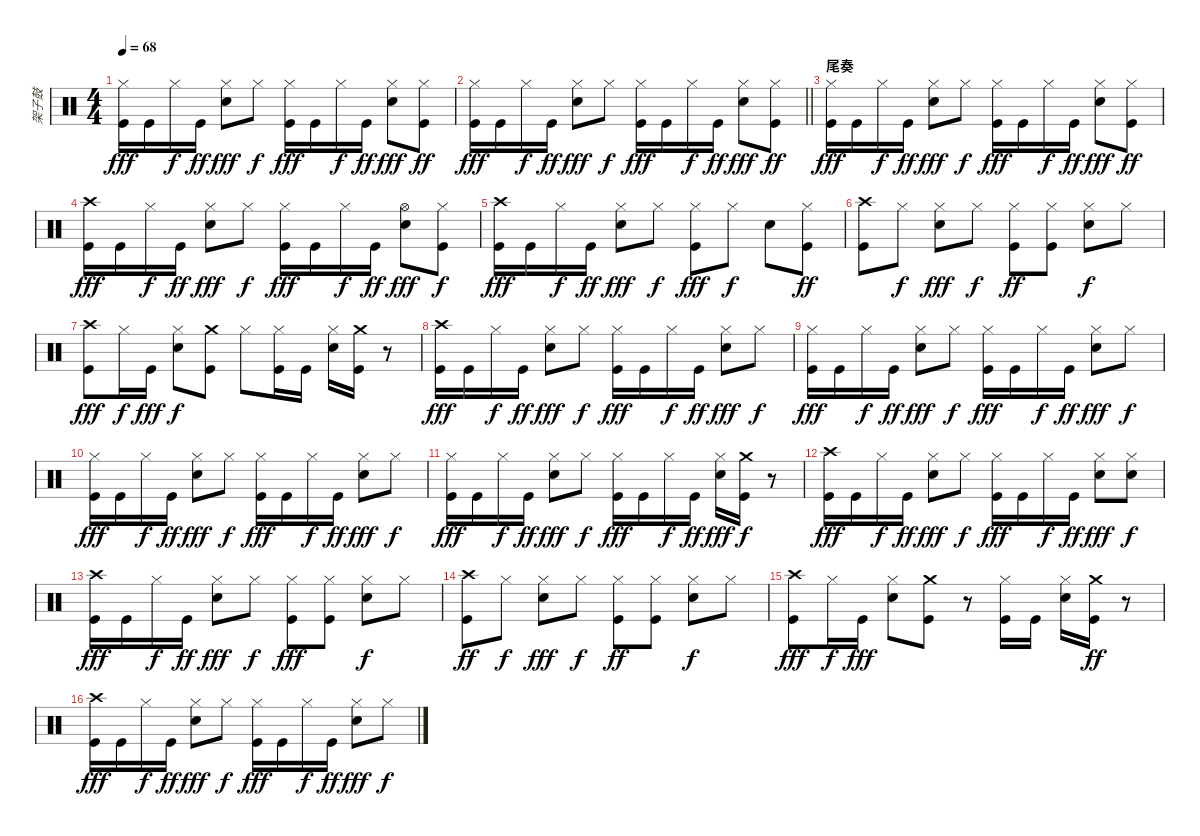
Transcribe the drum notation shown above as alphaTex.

\track ("架子鼓" "架子鼓") {instrument percussion}
\staff {score}
\articulation defaults
\ts (4 4)
\tempo 68
\clef neutral
\ks c
("Hi-Hat (closed)" "Kick (hit)").16{dy fff} "Kick (hit)".16 "Hi-Hat (closed)".16{dy f} "Kick (hit)".16{dy ff} ("Hi-Hat (closed)" "Snare (hit) 2").8{dy fff} "Hi-Hat (closed)".8{dy f} ("Hi-Hat (closed)" "Kick (hit)").16{dy fff} "Kick (hit)".16 "Hi-Hat (closed)".16{dy f} "Kick (hit)".16{dy ff} ("Hi-Hat (closed)" "Snare (hit) 2").8{dy fff} ("Hi-Hat (closed)" "Kick (hit)").8{dy ff} |
\barLineRight lightlight
("Hi-Hat (closed)" "Kick (hit)").16{dy fff} "Kick (hit)".16 "Hi-Hat (closed)".16{dy f} "Kick (hit)".16{dy ff} ("Hi-Hat (closed)" "Snare (hit) 2").8{dy fff} "Hi-Hat (closed)".8{dy f} ("Hi-Hat (closed)" "Kick (hit)").16{dy fff} "Kick (hit)".16 "Hi-Hat (closed)".16{dy f} "Kick (hit)".16{dy ff} ("Hi-Hat (closed)" "Snare (hit) 2").8{dy fff} ("Hi-Hat (closed)" "Kick (hit)").8{dy ff} |
\section ("" "尾奏")
("Hi-Hat (closed)" "Kick (hit)").16{dy fff} "Kick (hit)".16 "Hi-Hat (closed)".16{dy f} "Kick (hit)".16{dy ff} ("Hi-Hat (closed)" "Snare (hit) 2").8{dy fff} "Hi-Hat (closed)".8{dy f} ("Hi-Hat (closed)" "Kick (hit)").16{dy fff} "Kick (hit)".16 "Hi-Hat (closed)".16{dy f} "Kick (hit)".16{dy ff} ("Hi-Hat (closed)" "Snare (hit) 2").8{dy fff} ("Hi-Hat (closed)" "Kick (hit)").8{dy ff} |
("Crash high (hit)" "Kick (hit)").16{dy fff} "Kick (hit)".16 "Hi-Hat (closed)".16{dy f} "Kick (hit)".16{dy ff} ("Hi-Hat (closed)" "Snare (hit) 2").8{dy fff} "Hi-Hat (closed)".8{dy f} ("Hi-Hat (closed)" "Kick (hit)").16{dy fff} "Kick (hit)".16 "Hi-Hat (closed)".16{dy f} "Kick (hit)".16{dy ff} ("Hi-Hat (open)" "Snare (hit) 2").8{dy fff} ("Hi-Hat (closed)" "Kick (hit)").8{dy f} |
("Crash high (hit)" "Kick (hit)").16{dy fff} "Kick (hit)".16 "Hi-Hat (closed)".16{dy f} "Kick (hit)".16{dy ff} ("Hi-Hat (closed)" "Snare (hit) 2").8{dy fff} "Hi-Hat (closed)".8{dy f} ("Hi-Hat (closed)" "Kick (hit)").8{dy fff} "Hi-Hat (closed)".8{dy f} "Snare (hit) 2".8 ("Hi-Hat (closed)" "Kick (hit)").8{dy ff} |
("Crash high (hit)" "Kick (hit)").8 "Hi-Hat (closed)".8{dy f} ("Hi-Hat (closed)" "Snare (hit) 2").8{dy fff} "Hi-Hat (closed)".8{dy f} ("Hi-Hat (closed)" "Kick (hit)").8{dy ff} ("Hi-Hat (closed)" "Kick (hit)").8 ("Hi-Hat (closed)" "Snare (hit) 2").8{dy f} "Hi-Hat (closed)".8 |
("Crash high (hit)" "Kick (hit)").8{dy fff} "Hi-Hat (closed)".16{dy f} "Kick (hit)".16{dy fff} ("Hi-Hat (closed)" "Snare (hit) 2").8{dy f} ("Crash medium (hit)" "Kick (hit)").8 "Hi-Hat (closed)".8 ("Hi-Hat (closed)" "Kick (hit)").16 "Kick (hit)".16 ("Hi-Hat (closed)" "Snare (hit) 2").16 ("Crash medium (hit)" "Kick (hit)").16 r.8 |
("Crash high (hit)" "Kick (hit)").16{dy fff} "Kick (hit)".16 "Hi-Hat (closed)".16{dy f} "Kick (hit)".16{dy ff} ("Hi-Hat (closed)" "Snare (hit) 2").8{dy fff} "Hi-Hat (closed)".8{dy f} ("Hi-Hat (closed)" "Kick (hit)").16{dy fff} "Kick (hit)".16 "Hi-Hat (closed)".16{dy f} "Kick (hit)".16{dy ff} ("Hi-Hat (closed)" "Snare (hit) 2").8{dy fff} "Hi-Hat (closed)".8{dy f} |
("Hi-Hat (closed)" "Kick (hit)").16{dy fff} "Kick (hit)".16 "Hi-Hat (closed)".16{dy f} "Kick (hit)".16{dy ff} ("Hi-Hat (closed)" "Snare (hit) 2").8{dy fff} "Hi-Hat (closed)".8{dy f} ("Hi-Hat (closed)" "Kick (hit)").16{dy fff} "Kick (hit)".16 "Hi-Hat (closed)".16{dy f} "Kick (hit)".16{dy ff} ("Hi-Hat (closed)" "Snare (hit) 2").8{dy fff} "Hi-Hat (closed)".8{dy f} |
("Hi-Hat (closed)" "Kick (hit)").16{dy fff} "Kick (hit)".16 "Hi-Hat (closed)".16{dy f} "Kick (hit)".16{dy ff} ("Hi-Hat (closed)" "Snare (hit) 2").8{dy fff} "Hi-Hat (closed)".8{dy f} ("Hi-Hat (closed)" "Kick (hit)").16{dy fff} "Kick (hit)".16 "Hi-Hat (closed)".16{dy f} "Kick (hit)".16{dy ff} ("Hi-Hat (closed)" "Snare (hit) 2").8{dy fff} "Hi-Hat (closed)".8{dy f} |
("Hi-Hat (closed)" "Kick (hit)").16{dy fff} "Kick (hit)".16 "Hi-Hat (closed)".16{dy f} "Kick (hit)".16{dy ff} ("Hi-Hat (closed)" "Snare (hit) 2").8{dy fff} "Hi-Hat (closed)".8{dy f} ("Hi-Hat (closed)" "Kick (hit)").16{dy fff} "Kick (hit)".16 "Hi-Hat (closed)".16{dy f} "Kick (hit)".16{dy ff} ("Hi-Hat (closed)" "Snare (hit) 2").16{dy fff} ("Crash medium (hit)" "Kick (hit)").16{dy f} r.8 |
("Crash high (hit)" "Kick (hit)").16{dy fff} "Kick (hit)".16 "Hi-Hat (closed)".16{dy f} "Kick (hit)".16{dy ff} ("Hi-Hat (closed)" "Snare (hit) 2").8{dy fff} "Hi-Hat (closed)".8{dy f} ("Hi-Hat (closed)" "Kick (hit)").16{dy fff} "Kick (hit)".16 "Hi-Hat (closed)".16{dy f} "Kick (hit)".16{dy ff} ("Hi-Hat (closed)" "Snare (hit) 2").8{dy fff} ("Hi-Hat (closed)" "Snare (hit) 2").8{dy f} |
("Crash high (hit)" "Kick (hit)").16{dy fff} "Kick (hit)".16 "Hi-Hat (closed)".16{dy f} "Kick (hit)".16{dy ff} ("Hi-Hat (closed)" "Snare (hit) 2").8{dy fff} "Hi-Hat (closed)".8{dy f} ("Hi-Hat (closed)" "Kick (hit)").8{dy fff} ("Hi-Hat (closed)" "Kick (hit)").8 ("Hi-Hat (closed)" "Snare (hit) 2").8{dy f} "Hi-Hat (closed)".8 |
("Crash high (hit)" "Kick (hit)").8{dy ff} "Hi-Hat (closed)".8{dy f} ("Hi-Hat (closed)" "Snare (hit) 2").8{dy fff} "Hi-Hat (closed)".8{dy f} ("Hi-Hat (closed)" "Kick (hit)").8{dy ff} ("Hi-Hat (closed)" "Kick (hit)").8 ("Hi-Hat (closed)" "Snare (hit) 2").8{dy f} "Hi-Hat (closed)".8 |
("Crash high (hit)" "Kick (hit)").8{dy fff} "Hi-Hat (closed)".16{dy f} "Kick (hit)".16{dy fff} ("Hi-Hat (closed)" "Snare (hit) 2").8 ("Crash medium (hit)" "Kick (hit)").8 r.8 ("Hi-Hat (closed)" "Kick (hit)").16 "Kick (hit)".16 ("Hi-Hat (closed)" "Snare (hit) 2").16 ("Crash medium (hit)" "Kick (hit)").16{dy ff} r.8 |
("Crash high (hit)" "Kick (hit)").16{dy fff} "Kick (hit)".16 "Hi-Hat (closed)".16{dy f} "Kick (hit)".16{dy ff} ("Hi-Hat (closed)" "Snare (hit) 2").8{dy fff} "Hi-Hat (closed)".8{dy f} ("Hi-Hat (closed)" "Kick (hit)").16{dy fff} "Kick (hit)".16 "Hi-Hat (closed)".16{dy f} "Kick (hit)".16{dy ff} ("Hi-Hat (closed)" "Snare (hit) 2").8{dy fff} "Hi-Hat (closed)".8{dy f}
